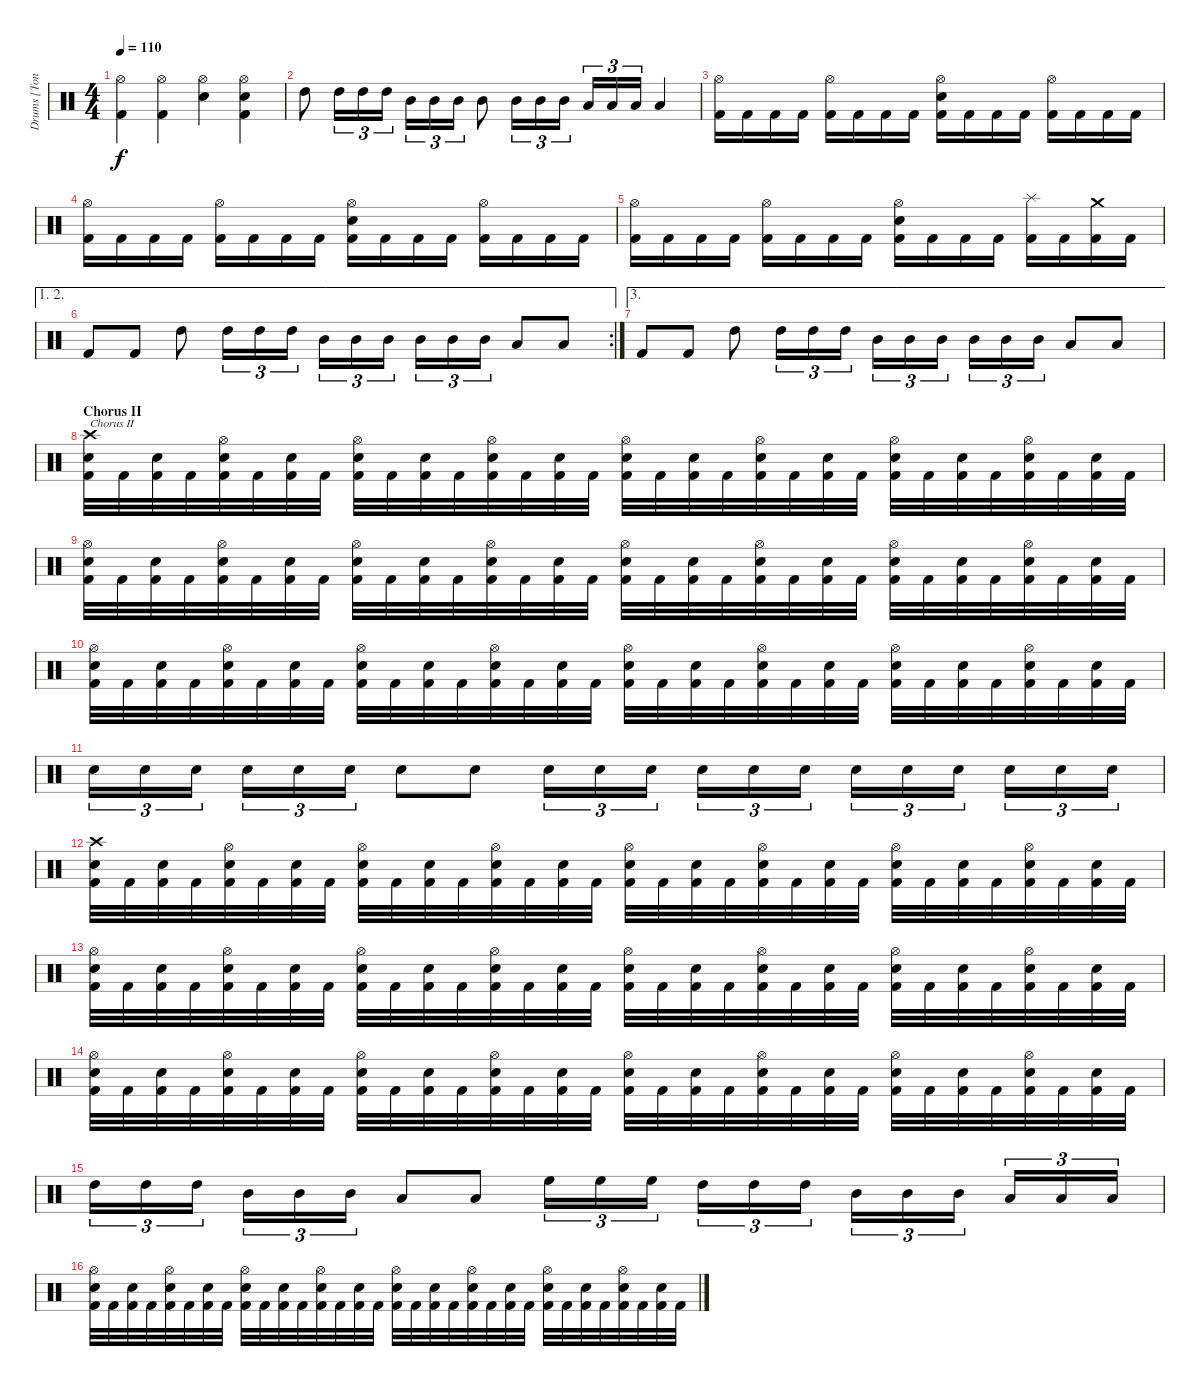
\track ("Drums [Tony Laureano]" "Drums [Ton") {instrument percussion}
\staff {score}
\articulation defaults
\ts (4 4)
\tempo 110
\clef neutral
\ks c
("Hi-Hat (open)" "Kick (hit) 2").4{dy f} ("Hi-Hat (open)" "Kick (hit) 2").4 ("Hi-Hat (open)" "Electric Snare (hit)").4 ("Hi-Hat (open)" "Electric Snare (hit)" "Kick (hit) 2").4 |
"High Tom (hit)".8 "High Tom (hit)".16{tu (3 2)} "High Tom (hit)".16{tu (3 2)} "High Tom (hit)".16{tu (3 2)} "Mid Tom (hit)".16{tu (3 2)} "Mid Tom (hit)".16{tu (3 2)} "Mid Tom (hit)".16{tu (3 2)} "Mid Tom (hit)".8 "Mid Tom (hit)".16{tu (3 2)} "Mid Tom (hit)".16{tu (3 2)} "Mid Tom (hit)".16{tu (3 2)} "Low Tom (hit)".16{tu (3 2)} "Low Tom (hit)".16{tu (3 2)} "Low Tom (hit)".16{tu (3 2)} "Low Tom (hit)".4 |
("Hi-Hat (open)" "Kick (hit) 2").16 "Kick (hit) 2".16 "Kick (hit) 2".16 "Kick (hit) 2".16 ("Hi-Hat (open)" "Kick (hit) 2").16 "Kick (hit) 2".16 "Kick (hit) 2".16 "Kick (hit) 2".16 ("Hi-Hat (open)" "Electric Snare (hit)" "Kick (hit) 2").16 "Kick (hit) 2".16 "Kick (hit) 2".16 "Kick (hit) 2".16 ("Hi-Hat (open)" "Kick (hit) 2").16 "Kick (hit) 2".16 "Kick (hit) 2".16 "Kick (hit) 2".16 |
("Hi-Hat (open)" "Kick (hit) 2").16 "Kick (hit) 2".16 "Kick (hit) 2".16 "Kick (hit) 2".16 ("Hi-Hat (open)" "Kick (hit) 2").16 "Kick (hit) 2".16 "Kick (hit) 2".16 "Kick (hit) 2".16 ("Hi-Hat (open)" "Electric Snare (hit)" "Kick (hit) 2").16 "Kick (hit) 2".16 "Kick (hit) 2".16 "Kick (hit) 2".16 ("Hi-Hat (open)" "Kick (hit) 2").16 "Kick (hit) 2".16 "Kick (hit) 2".16 "Kick (hit) 2".16 |
("Hi-Hat (open)" "Kick (hit) 2").16 "Kick (hit) 2".16 "Kick (hit) 2".16 "Kick (hit) 2".16 ("Hi-Hat (open)" "Kick (hit) 2").16 "Kick (hit) 2".16 "Kick (hit) 2".16 "Kick (hit) 2".16 ("Hi-Hat (open)" "Electric Snare (hit)" "Kick (hit) 2").16 "Kick (hit) 2".16 "Kick (hit) 2".16 "Kick (hit) 2".16 ("Splash (hit)" "Kick (hit) 2").16 "Kick (hit) 2".16 ("Crash medium (hit)" "Kick (hit) 2").16 "Kick (hit) 2".16 |
\ae (1 2)
\rc 2 "Kick (hit) 2".8 "Kick (hit) 2".8 "High Tom (hit)".8 "High Tom (hit)".16{tu (3 2)} "High Tom (hit)".16{tu (3 2)} "High Tom (hit)".16{tu (3 2)} "Mid Tom (hit)".16{tu (3 2)} "Mid Tom (hit)".16{tu (3 2)} "Mid Tom (hit)".16{tu (3 2)} "Mid Tom (hit)".16{tu (3 2)} "Mid Tom (hit)".16{tu (3 2)} "Mid Tom (hit)".16{tu (3 2)} "Low Tom (hit)".8 "Low Tom (hit)".8
|
\ae 3 "Kick (hit) 2".8 "Kick (hit) 2".8 "High Tom (hit)".8 "High Tom (hit)".16{tu (3 2)} "High Tom (hit)".16{tu (3 2)} "High Tom (hit)".16{tu (3 2)} "Mid Tom (hit)".16{tu (3 2)} "Mid Tom (hit)".16{tu (3 2)} "Mid Tom (hit)".16{tu (3 2)} "Mid Tom (hit)".16{tu (3 2)} "Mid Tom (hit)".16{tu (3 2)} "Mid Tom (hit)".16{tu (3 2)} "Low Tom (hit)".8 "Low Tom (hit)".8
|
\section ("" "Chorus II")
("Crash high (hit)" "Electric Snare (hit)" "Kick (hit) 2").32{txt "Chorus II"} "Kick (hit) 2".32 ("Electric Snare (hit)" "Kick (hit) 2").32 "Kick (hit) 2".32 ("Hi-Hat (open)" "Electric Snare (hit)" "Kick (hit) 2").32 "Kick (hit) 2".32 ("Electric Snare (hit)" "Kick (hit) 2").32 "Kick (hit) 2".32 ("Hi-Hat (open)" "Electric Snare (hit)" "Kick (hit) 2").32 "Kick (hit) 2".32 ("Electric Snare (hit)" "Kick (hit) 2").32 "Kick (hit) 2".32 ("Hi-Hat (open)" "Electric Snare (hit)" "Kick (hit) 2").32 "Kick (hit) 2".32 ("Electric Snare (hit)" "Kick (hit) 2").32 "Kick (hit) 2".32 ("Hi-Hat (open)" "Electric Snare (hit)" "Kick (hit) 2").32 "Kick (hit) 2".32 ("Electric Snare (hit)" "Kick (hit) 2").32 "Kick (hit) 2".32 ("Hi-Hat (open)" "Electric Snare (hit)" "Kick (hit) 2").32 "Kick (hit) 2".32 ("Electric Snare (hit)" "Kick (hit) 2").32 "Kick (hit) 2".32 ("Hi-Hat (open)" "Electric Snare (hit)" "Kick (hit) 2").32 "Kick (hit) 2".32 ("Electric Snare (hit)" "Kick (hit) 2").32 "Kick (hit) 2".32 ("Hi-Hat (open)" "Electric Snare (hit)" "Kick (hit) 2").32 "Kick (hit) 2".32 ("Electric Snare (hit)" "Kick (hit) 2").32 "Kick (hit) 2".32 |
("Hi-Hat (open)" "Electric Snare (hit)" "Kick (hit) 2").32 "Kick (hit) 2".32 ("Electric Snare (hit)" "Kick (hit) 2").32 "Kick (hit) 2".32 ("Hi-Hat (open)" "Electric Snare (hit)" "Kick (hit) 2").32 "Kick (hit) 2".32 ("Electric Snare (hit)" "Kick (hit) 2").32 "Kick (hit) 2".32 ("Hi-Hat (open)" "Electric Snare (hit)" "Kick (hit) 2").32 "Kick (hit) 2".32 ("Electric Snare (hit)" "Kick (hit) 2").32 "Kick (hit) 2".32 ("Hi-Hat (open)" "Electric Snare (hit)" "Kick (hit) 2").32 "Kick (hit) 2".32 ("Electric Snare (hit)" "Kick (hit) 2").32 "Kick (hit) 2".32 ("Hi-Hat (open)" "Electric Snare (hit)" "Kick (hit) 2").32 "Kick (hit) 2".32 ("Electric Snare (hit)" "Kick (hit) 2").32 "Kick (hit) 2".32 ("Hi-Hat (open)" "Electric Snare (hit)" "Kick (hit) 2").32 "Kick (hit) 2".32 ("Electric Snare (hit)" "Kick (hit) 2").32 "Kick (hit) 2".32 ("Hi-Hat (open)" "Electric Snare (hit)" "Kick (hit) 2").32 "Kick (hit) 2".32 ("Electric Snare (hit)" "Kick (hit) 2").32 "Kick (hit) 2".32 ("Hi-Hat (open)" "Electric Snare (hit)" "Kick (hit) 2").32 "Kick (hit) 2".32 ("Electric Snare (hit)" "Kick (hit) 2").32 "Kick (hit) 2".32 |
("Hi-Hat (open)" "Electric Snare (hit)" "Kick (hit) 2").32 "Kick (hit) 2".32 ("Electric Snare (hit)" "Kick (hit) 2").32 "Kick (hit) 2".32 ("Hi-Hat (open)" "Electric Snare (hit)" "Kick (hit) 2").32 "Kick (hit) 2".32 ("Electric Snare (hit)" "Kick (hit) 2").32 "Kick (hit) 2".32 ("Hi-Hat (open)" "Electric Snare (hit)" "Kick (hit) 2").32 "Kick (hit) 2".32 ("Electric Snare (hit)" "Kick (hit) 2").32 "Kick (hit) 2".32 ("Hi-Hat (open)" "Electric Snare (hit)" "Kick (hit) 2").32 "Kick (hit) 2".32 ("Electric Snare (hit)" "Kick (hit) 2").32 "Kick (hit) 2".32 ("Hi-Hat (open)" "Electric Snare (hit)" "Kick (hit) 2").32 "Kick (hit) 2".32 ("Electric Snare (hit)" "Kick (hit) 2").32 "Kick (hit) 2".32 ("Hi-Hat (open)" "Electric Snare (hit)" "Kick (hit) 2").32 "Kick (hit) 2".32 ("Electric Snare (hit)" "Kick (hit) 2").32 "Kick (hit) 2".32 ("Hi-Hat (open)" "Electric Snare (hit)" "Kick (hit) 2").32 "Kick (hit) 2".32 ("Electric Snare (hit)" "Kick (hit) 2").32 "Kick (hit) 2".32 ("Hi-Hat (open)" "Electric Snare (hit)" "Kick (hit) 2").32 "Kick (hit) 2".32 ("Electric Snare (hit)" "Kick (hit) 2").32 "Kick (hit) 2".32 |
"Electric Snare (hit)".16{tu (3 2)} "Electric Snare (hit)".16{tu (3 2)} "Electric Snare (hit)".16{tu (3 2)} "Electric Snare (hit)".16{tu (3 2)} "Electric Snare (hit)".16{tu (3 2)} "Electric Snare (hit)".16{tu (3 2)} "Electric Snare (hit)".8 "Electric Snare (hit)".8 "Electric Snare (hit)".16{tu (3 2)} "Electric Snare (hit)".16{tu (3 2)} "Electric Snare (hit)".16{tu (3 2)} "Electric Snare (hit)".16{tu (3 2)} "Electric Snare (hit)".16{tu (3 2)} "Electric Snare (hit)".16{tu (3 2)} "Electric Snare (hit)".16{tu (3 2)} "Electric Snare (hit)".16{tu (3 2)} "Electric Snare (hit)".16{tu (3 2)} "Electric Snare (hit)".16{tu (3 2)} "Electric Snare (hit)".16{tu (3 2)} "Electric Snare (hit)".16{tu (3 2)} |
("Crash high (hit)" "Electric Snare (hit)" "Kick (hit) 2").32 "Kick (hit) 2".32 ("Electric Snare (hit)" "Kick (hit) 2").32 "Kick (hit) 2".32 ("Hi-Hat (open)" "Electric Snare (hit)" "Kick (hit) 2").32 "Kick (hit) 2".32 ("Electric Snare (hit)" "Kick (hit) 2").32 "Kick (hit) 2".32 ("Hi-Hat (open)" "Electric Snare (hit)" "Kick (hit) 2").32 "Kick (hit) 2".32 ("Electric Snare (hit)" "Kick (hit) 2").32 "Kick (hit) 2".32 ("Hi-Hat (open)" "Electric Snare (hit)" "Kick (hit) 2").32 "Kick (hit) 2".32 ("Electric Snare (hit)" "Kick (hit) 2").32 "Kick (hit) 2".32 ("Hi-Hat (open)" "Electric Snare (hit)" "Kick (hit) 2").32 "Kick (hit) 2".32 ("Electric Snare (hit)" "Kick (hit) 2").32 "Kick (hit) 2".32 ("Hi-Hat (open)" "Electric Snare (hit)" "Kick (hit) 2").32 "Kick (hit) 2".32 ("Electric Snare (hit)" "Kick (hit) 2").32 "Kick (hit) 2".32 ("Hi-Hat (open)" "Electric Snare (hit)" "Kick (hit) 2").32 "Kick (hit) 2".32 ("Electric Snare (hit)" "Kick (hit) 2").32 "Kick (hit) 2".32 ("Hi-Hat (open)" "Electric Snare (hit)" "Kick (hit) 2").32 "Kick (hit) 2".32 ("Electric Snare (hit)" "Kick (hit) 2").32 "Kick (hit) 2".32 |
("Hi-Hat (open)" "Electric Snare (hit)" "Kick (hit) 2").32 "Kick (hit) 2".32 ("Electric Snare (hit)" "Kick (hit) 2").32 "Kick (hit) 2".32 ("Hi-Hat (open)" "Electric Snare (hit)" "Kick (hit) 2").32 "Kick (hit) 2".32 ("Electric Snare (hit)" "Kick (hit) 2").32 "Kick (hit) 2".32 ("Hi-Hat (open)" "Electric Snare (hit)" "Kick (hit) 2").32 "Kick (hit) 2".32 ("Electric Snare (hit)" "Kick (hit) 2").32 "Kick (hit) 2".32 ("Hi-Hat (open)" "Electric Snare (hit)" "Kick (hit) 2").32 "Kick (hit) 2".32 ("Electric Snare (hit)" "Kick (hit) 2").32 "Kick (hit) 2".32 ("Hi-Hat (open)" "Electric Snare (hit)" "Kick (hit) 2").32 "Kick (hit) 2".32 ("Electric Snare (hit)" "Kick (hit) 2").32 "Kick (hit) 2".32 ("Hi-Hat (open)" "Electric Snare (hit)" "Kick (hit) 2").32 "Kick (hit) 2".32 ("Electric Snare (hit)" "Kick (hit) 2").32 "Kick (hit) 2".32 ("Hi-Hat (open)" "Electric Snare (hit)" "Kick (hit) 2").32 "Kick (hit) 2".32 ("Electric Snare (hit)" "Kick (hit) 2").32 "Kick (hit) 2".32 ("Hi-Hat (open)" "Electric Snare (hit)" "Kick (hit) 2").32 "Kick (hit) 2".32 ("Electric Snare (hit)" "Kick (hit) 2").32 "Kick (hit) 2".32 |
("Hi-Hat (open)" "Electric Snare (hit)" "Kick (hit) 2").32 "Kick (hit) 2".32 ("Electric Snare (hit)" "Kick (hit) 2").32 "Kick (hit) 2".32 ("Hi-Hat (open)" "Electric Snare (hit)" "Kick (hit) 2").32 "Kick (hit) 2".32 ("Electric Snare (hit)" "Kick (hit) 2").32 "Kick (hit) 2".32 ("Hi-Hat (open)" "Electric Snare (hit)" "Kick (hit) 2").32 "Kick (hit) 2".32 ("Electric Snare (hit)" "Kick (hit) 2").32 "Kick (hit) 2".32 ("Hi-Hat (open)" "Electric Snare (hit)" "Kick (hit) 2").32 "Kick (hit) 2".32 ("Electric Snare (hit)" "Kick (hit) 2").32 "Kick (hit) 2".32 ("Hi-Hat (open)" "Electric Snare (hit)" "Kick (hit) 2").32 "Kick (hit) 2".32 ("Electric Snare (hit)" "Kick (hit) 2").32 "Kick (hit) 2".32 ("Hi-Hat (open)" "Electric Snare (hit)" "Kick (hit) 2").32 "Kick (hit) 2".32 ("Electric Snare (hit)" "Kick (hit) 2").32 "Kick (hit) 2".32 ("Hi-Hat (open)" "Electric Snare (hit)" "Kick (hit) 2").32 "Kick (hit) 2".32 ("Electric Snare (hit)" "Kick (hit) 2").32 "Kick (hit) 2".32 ("Hi-Hat (open)" "Electric Snare (hit)" "Kick (hit) 2").32 "Kick (hit) 2".32 ("Electric Snare (hit)" "Kick (hit) 2").32 "Kick (hit) 2".32 |
"High Tom (hit)".16{tu (3 2)} "High Tom (hit)".16{tu (3 2)} "High Tom (hit)".16{tu (3 2)} "Mid Tom (hit)".16{tu (3 2)} "Mid Tom (hit)".16{tu (3 2)} "Mid Tom (hit)".16{tu (3 2)} "Low Tom (hit)".8 "Low Tom (hit)".8 "High Floor Tom (hit)".16{tu (3 2)} "High Floor Tom (hit)".16{tu (3 2)} "High Floor Tom (hit)".16{tu (3 2)} "High Tom (hit)".16{tu (3 2)} "High Tom (hit)".16{tu (3 2)} "High Tom (hit)".16{tu (3 2)} "Mid Tom (hit)".16{tu (3 2)} "Mid Tom (hit)".16{tu (3 2)} "Mid Tom (hit)".16{tu (3 2)} "Low Tom (hit)".16{tu (3 2)} "Low Tom (hit)".16{tu (3 2)} "Low Tom (hit)".16{tu (3 2)} |
("Hi-Hat (open)" "Electric Snare (hit)" "Kick (hit) 2").32 "Kick (hit) 2".32 ("Electric Snare (hit)" "Kick (hit) 2").32 "Kick (hit) 2".32 ("Hi-Hat (open)" "Electric Snare (hit)" "Kick (hit) 2").32 "Kick (hit) 2".32 ("Electric Snare (hit)" "Kick (hit) 2").32 "Kick (hit) 2".32 ("Hi-Hat (open)" "Electric Snare (hit)" "Kick (hit) 2").32 "Kick (hit) 2".32 ("Electric Snare (hit)" "Kick (hit) 2").32 "Kick (hit) 2".32 ("Hi-Hat (open)" "Electric Snare (hit)" "Kick (hit) 2").32 "Kick (hit) 2".32 ("Electric Snare (hit)" "Kick (hit) 2").32 "Kick (hit) 2".32 ("Hi-Hat (open)" "Electric Snare (hit)" "Kick (hit) 2").32 "Kick (hit) 2".32 ("Electric Snare (hit)" "Kick (hit) 2").32 "Kick (hit) 2".32 ("Hi-Hat (open)" "Electric Snare (hit)" "Kick (hit) 2").32 "Kick (hit) 2".32 ("Electric Snare (hit)" "Kick (hit) 2").32 "Kick (hit) 2".32 ("Hi-Hat (open)" "Electric Snare (hit)" "Kick (hit) 2").32 "Kick (hit) 2".32 ("Electric Snare (hit)" "Kick (hit) 2").32 "Kick (hit) 2".32 ("Hi-Hat (open)" "Electric Snare (hit)" "Kick (hit) 2").32 "Kick (hit) 2".32 ("Electric Snare (hit)" "Kick (hit) 2").32 "Kick (hit) 2".32
